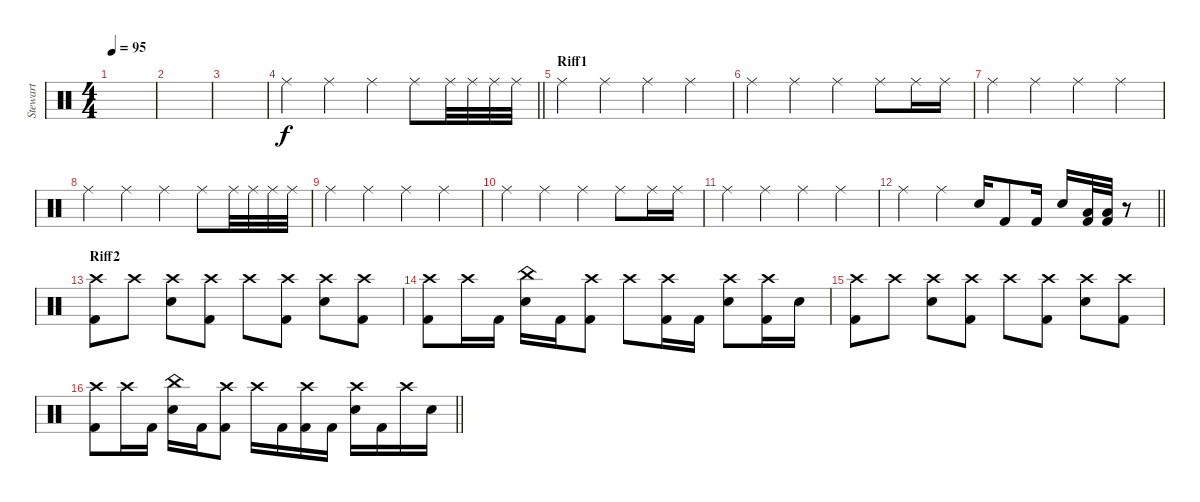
\track ("Stewart" "Stewart") {instrument percussion}
\staff {score}
\articulation defaults
\ts (4 4)
\tempo 95
\clef neutral
\ks c
|
|
|
\barLineRight lightlight "Ride (middle)".4 "Ride (middle)".4 "Ride (middle)".4 "Ride (middle)".8 "Ride (middle)".32 "Ride (middle)".32 "Ride (middle)".32 "Ride (middle)".32
|
\section ("" "Riff1")
"Ride (middle)".4 "Ride (middle)".4 "Ride (middle)".4 "Ride (middle)".4 |
"Ride (middle)".4 "Ride (middle)".4 "Ride (middle)".4 "Ride (middle)".8 "Ride (middle)".16 "Ride (middle)".16 |
"Ride (middle)".4 "Ride (middle)".4 "Ride (middle)".4 "Ride (middle)".4 |
"Ride (middle)".4 "Ride (middle)".4 "Ride (middle)".4 "Ride (middle)".8 "Ride (middle)".32 "Ride (middle)".32 "Ride (middle)".32 "Ride (middle)".32 |
"Ride (middle)".4 "Ride (middle)".4 "Ride (middle)".4 "Ride (middle)".4 |
"Ride (middle)".4 "Ride (middle)".4 "Ride (middle)".4 "Ride (middle)".8 "Ride (middle)".16 "Ride (middle)".16 |
"Ride (middle)".4 "Ride (middle)".4 "Ride (middle)".4 "Ride (middle)".4 |
\barLineRight lightlight "Ride (middle)".4 "Ride (middle)".4 "Electric Snare (hit)".16 "Kick (hit) 2".8 "Kick (hit) 2".16 "Electric Snare (hit)".16
("Low Tom (hit)" "Kick (hit) 2").32 ("Low Tom (hit)" "Kick (hit) 2").32 r.8 |
\section ("" "Riff2")
("Crash high (hit)" "Kick (hit) 2").8 "Crash high (hit)".8 ("Crash high (hit)" "Electric Snare (hit)").8 ("Crash high (hit)" "Kick (hit) 2").8 "Crash high (hit)".8 ("Crash high (hit)" "Kick (hit) 2").8 ("Crash high (hit)" "Electric Snare (hit)").8 ("Crash high (hit)" "Kick (hit) 2").8 |
("Crash high (hit)" "Kick (hit) 2").8 "Crash high (hit)".16 "Kick (hit) 2".16 ("China (hit)" "Electric Snare (hit)").16 "Kick (hit) 2".16 ("Crash high (hit)" "Kick (hit) 2").8 "Crash high (hit)".8 ("Crash high (hit)" "Kick (hit) 2").16 "Kick (hit) 2".16 ("Crash high (hit)" "Electric Snare (hit)").8 ("Crash high (hit)" "Kick (hit) 2").16 "Electric Snare (hit)".16 |
("Crash high (hit)" "Kick (hit) 2").8 "Crash high (hit)".8 ("Crash high (hit)" "Electric Snare (hit)").8 ("Crash high (hit)" "Kick (hit) 2").8 "Crash high (hit)".8 ("Crash high (hit)" "Kick (hit) 2").8 ("Crash high (hit)" "Electric Snare (hit)").8 ("Crash high (hit)" "Kick (hit) 2").8 |
\barLineRight lightlight
("Crash high (hit)" "Kick (hit) 2").8 "Crash high (hit)".16 "Kick (hit) 2".16 ("China (hit)" "Electric Snare (hit)").16 "Kick (hit) 2".16 ("Crash high (hit)" "Kick (hit) 2").8 "Crash high (hit)".16 "Kick (hit) 2".16 ("Crash high (hit)" "Kick (hit) 2").16 "Kick (hit) 2".16 ("Crash high (hit)" "Electric Snare (hit)").16 "Kick (hit) 2".16 "Crash high (hit)".16 "Electric Snare (hit)".16
